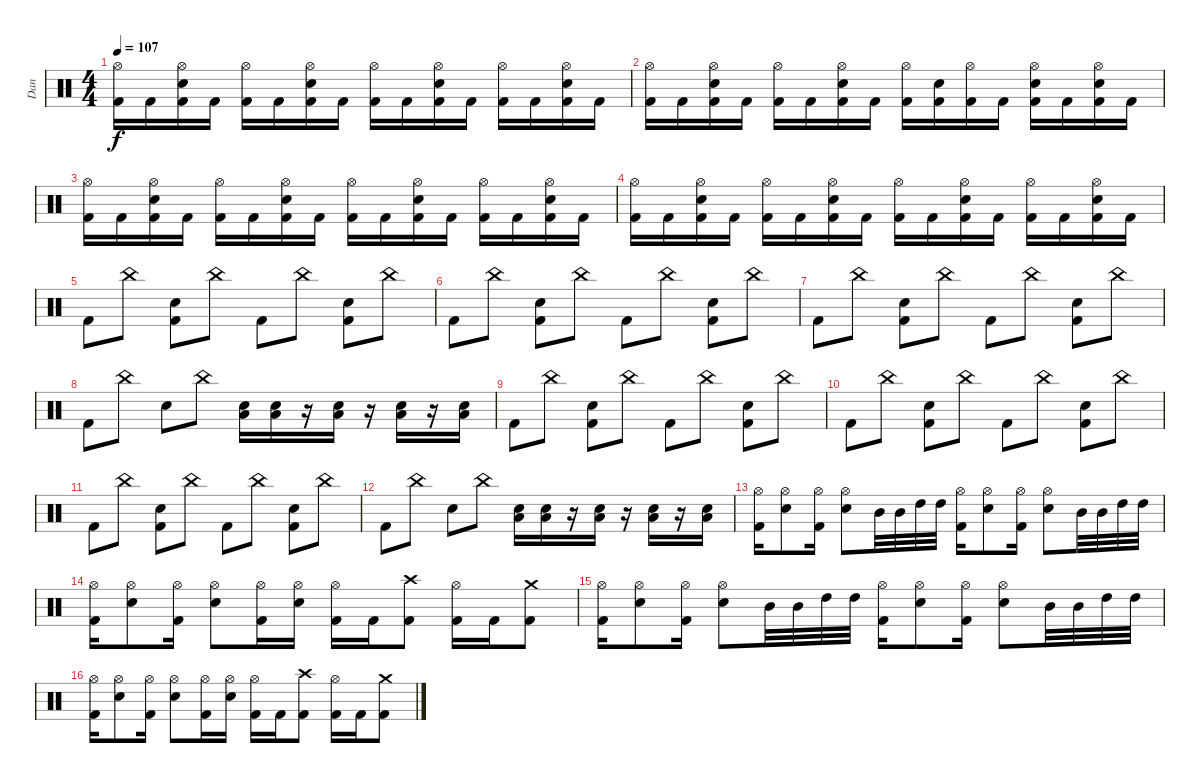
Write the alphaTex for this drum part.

\track ("Dan" "Dan") {instrument percussion}
\staff {score}
\articulation defaults
\ts (4 4)
\tempo 107
\clef neutral
\ks c
("Hi-Hat (open)" "Kick (hit) 2").16{dy f} "Kick (hit) 2".16 ("Hi-Hat (open)" "Kick (hit) 2" "Electric Snare (hit)").16 "Kick (hit) 2".16 ("Hi-Hat (open)" "Kick (hit) 2").16 "Kick (hit) 2".16 ("Hi-Hat (open)" "Kick (hit) 2" "Electric Snare (hit)").16 "Kick (hit) 2".16 ("Hi-Hat (open)" "Kick (hit) 2").16 "Kick (hit) 2".16 ("Hi-Hat (open)" "Kick (hit) 2" "Electric Snare (hit)").16 "Kick (hit) 2".16 ("Hi-Hat (open)" "Kick (hit) 2").16 "Kick (hit) 2".16 ("Hi-Hat (open)" "Kick (hit) 2" "Electric Snare (hit)").16 "Kick (hit) 2".16 |
("Hi-Hat (open)" "Kick (hit) 2").16 "Kick (hit) 2".16 ("Hi-Hat (open)" "Kick (hit) 2" "Electric Snare (hit)").16 "Kick (hit) 2".16 ("Hi-Hat (open)" "Kick (hit) 2").16 "Kick (hit) 2".16 ("Hi-Hat (open)" "Kick (hit) 2" "Electric Snare (hit)").16 "Kick (hit) 2".16 ("Hi-Hat (open)" "Kick (hit) 2").16 ("Kick (hit) 2" "Electric Snare (hit)").16 ("Hi-Hat (open)" "Kick (hit) 2").16 "Kick (hit) 2".16 ("Hi-Hat (open)" "Kick (hit) 2" "Electric Snare (hit)").16 "Kick (hit) 2".16 ("Hi-Hat (open)" "Kick (hit) 2" "Electric Snare (hit)").16 "Kick (hit) 2".16 |
("Hi-Hat (open)" "Kick (hit) 2").16 "Kick (hit) 2".16 ("Hi-Hat (open)" "Kick (hit) 2" "Electric Snare (hit)").16 "Kick (hit) 2".16 ("Hi-Hat (open)" "Kick (hit) 2").16 "Kick (hit) 2".16 ("Hi-Hat (open)" "Kick (hit) 2" "Electric Snare (hit)").16 "Kick (hit) 2".16 ("Hi-Hat (open)" "Kick (hit) 2").16 "Kick (hit) 2".16 ("Hi-Hat (open)" "Kick (hit) 2" "Electric Snare (hit)").16 "Kick (hit) 2".16 ("Hi-Hat (open)" "Kick (hit) 2").16 "Kick (hit) 2".16 ("Hi-Hat (open)" "Kick (hit) 2" "Electric Snare (hit)").16 "Kick (hit) 2".16 |
("Hi-Hat (open)" "Kick (hit) 2").16 "Kick (hit) 2".16 ("Hi-Hat (open)" "Kick (hit) 2" "Electric Snare (hit)").16 "Kick (hit) 2".16 ("Hi-Hat (open)" "Kick (hit) 2").16 "Kick (hit) 2".16 ("Hi-Hat (open)" "Kick (hit) 2" "Electric Snare (hit)").16 "Kick (hit) 2".16 ("Hi-Hat (open)" "Kick (hit) 2").16 "Kick (hit) 2".16 ("Hi-Hat (open)" "Kick (hit) 2" "Electric Snare (hit)").16 "Kick (hit) 2".16 ("Hi-Hat (open)" "Kick (hit) 2").16 "Kick (hit) 2".16 ("Hi-Hat (open)" "Kick (hit) 2" "Electric Snare (hit)").16 "Kick (hit) 2".16 |
"Kick (hit) 2".8 "China (hit)".8 ("Electric Snare (hit)" "Kick (hit) 2").8 "China (hit)".8 "Kick (hit) 2".8 "China (hit)".8 ("Electric Snare (hit)" "Kick (hit) 2").8 "China (hit)".8 |
"Kick (hit) 2".8 "China (hit)".8 ("Electric Snare (hit)" "Kick (hit) 2").8 "China (hit)".8 "Kick (hit) 2".8 "China (hit)".8 ("Electric Snare (hit)" "Kick (hit) 2").8 "China (hit)".8 |
"Kick (hit) 2".8 "China (hit)".8 ("Kick (hit) 2" "Electric Snare (hit)").8 "China (hit)".8 "Kick (hit) 2".8 "China (hit)".8 ("Kick (hit) 2" "Electric Snare (hit)").8 "China (hit)".8 |
"Kick (hit) 2".8 "China (hit)".8 "Electric Snare (hit)".8 "China (hit)".8 ("Low Floor Tom (hit)" "Electric Snare (hit)").16 ("Low Floor Tom (hit)" "Electric Snare (hit)").16 r.16 ("Low Floor Tom (hit)" "Electric Snare (hit)").16 r.16 ("Low Floor Tom (hit)" "Electric Snare (hit)").16 r.16 ("Low Floor Tom (hit)" "Electric Snare (hit)").16 |
"Kick (hit) 2".8 "China (hit)".8 ("Electric Snare (hit)" "Kick (hit) 2").8 "China (hit)".8 "Kick (hit) 2".8 "China (hit)".8 ("Electric Snare (hit)" "Kick (hit) 2").8 "China (hit)".8 |
"Kick (hit) 2".8 "China (hit)".8 ("Electric Snare (hit)" "Kick (hit) 2").8 "China (hit)".8 "Kick (hit) 2".8 "China (hit)".8 ("Electric Snare (hit)" "Kick (hit) 2").8 "China (hit)".8 |
"Kick (hit) 2".8 "China (hit)".8 ("Kick (hit) 2" "Electric Snare (hit)").8 "China (hit)".8 "Kick (hit) 2".8 "China (hit)".8 ("Kick (hit) 2" "Electric Snare (hit)").8 "China (hit)".8 |
"Kick (hit) 2".8 "China (hit)".8 "Electric Snare (hit)".8 "China (hit)".8 ("Low Floor Tom (hit)" "Electric Snare (hit)").16 ("Low Floor Tom (hit)" "Electric Snare (hit)").16 r.16 ("Low Floor Tom (hit)" "Electric Snare (hit)").16 r.16 ("Low Floor Tom (hit)" "Electric Snare (hit)").16 r.16 ("Low Floor Tom (hit)" "Electric Snare (hit)").16 |
("Kick (hit) 2" "Hi-Hat (open)").16 ("Electric Snare (hit)" "Hi-Hat (open)").8 ("Kick (hit) 2" "Hi-Hat (open)").16 ("Electric Snare (hit)" "Hi-Hat (open)").8 "Mid Tom (hit)".32 "Mid Tom (hit)".32 "High Tom (hit)".32 "High Tom (hit)".32 ("Kick (hit) 2" "Hi-Hat (open)").16 ("Electric Snare (hit)" "Hi-Hat (open)").8 ("Kick (hit) 2" "Hi-Hat (open)").16 ("Electric Snare (hit)" "Hi-Hat (open)").8 "Mid Tom (hit)".32 "Mid Tom (hit)".32 "High Tom (hit)".32 "High Tom (hit)".32 |
("Kick (hit) 2" "Hi-Hat (open)").16 ("Electric Snare (hit)" "Hi-Hat (open)").8 ("Kick (hit) 2" "Hi-Hat (open)").16 ("Electric Snare (hit)" "Hi-Hat (open)").8 ("Kick (hit) 2" "Hi-Hat (open)").16 ("Electric Snare (hit)" "Hi-Hat (open)").16 ("Hi-Hat (open)" "Kick (hit) 2").16 "Kick (hit) 2".16 ("Crash high (hit)" "Kick (hit) 2").8 ("Hi-Hat (open)" "Kick (hit) 2").16 "Kick (hit) 2".16 ("Crash medium (hit)" "Kick (hit) 2").8 |
("Kick (hit) 2" "Hi-Hat (open)").16 ("Electric Snare (hit)" "Hi-Hat (open)").8 ("Kick (hit) 2" "Hi-Hat (open)").16 ("Electric Snare (hit)" "Hi-Hat (open)").8 "Mid Tom (hit)".32 "Mid Tom (hit)".32 "High Tom (hit)".32 "High Tom (hit)".32 ("Kick (hit) 2" "Hi-Hat (open)").16 ("Electric Snare (hit)" "Hi-Hat (open)").8 ("Kick (hit) 2" "Hi-Hat (open)").16 ("Electric Snare (hit)" "Hi-Hat (open)").8 "Mid Tom (hit)".32 "Mid Tom (hit)".32 "High Tom (hit)".32 "High Tom (hit)".32 |
("Kick (hit) 2" "Hi-Hat (open)").16 ("Electric Snare (hit)" "Hi-Hat (open)").8 ("Kick (hit) 2" "Hi-Hat (open)").16 ("Electric Snare (hit)" "Hi-Hat (open)").8 ("Kick (hit) 2" "Hi-Hat (open)").16 ("Electric Snare (hit)" "Hi-Hat (open)").16 ("Hi-Hat (open)" "Kick (hit) 2").16 "Kick (hit) 2".16 ("Crash high (hit)" "Kick (hit) 2").8 ("Hi-Hat (open)" "Kick (hit) 2").16 "Kick (hit) 2".16 ("Crash medium (hit)" "Kick (hit) 2").8
